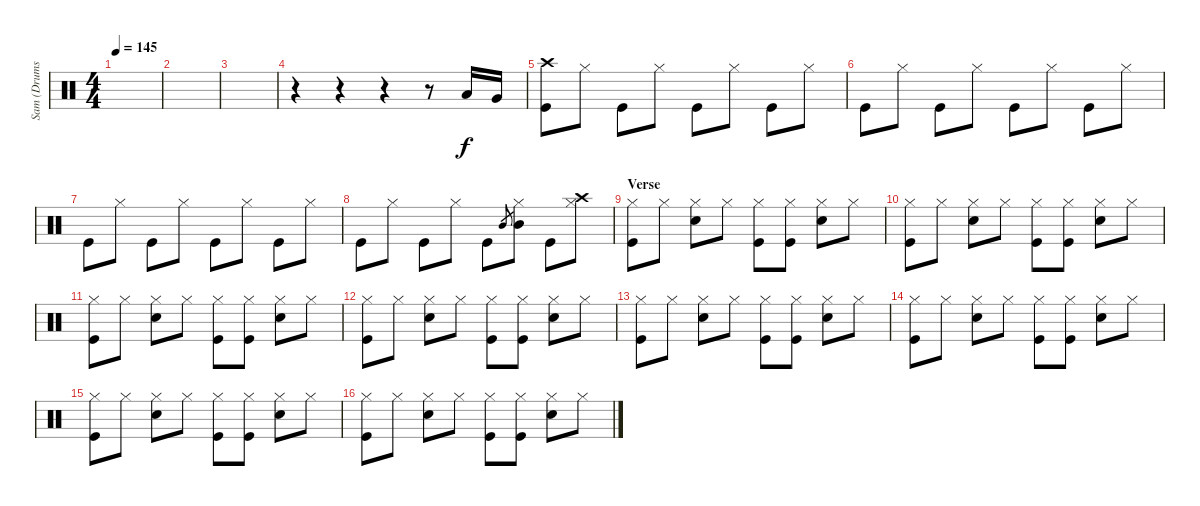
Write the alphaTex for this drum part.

\track ("Sam (Drums)" "Sam (Drums") {instrument percussion}
\staff {score}
\articulation defaults
\ts (4 4)
\tempo 145
\clef neutral
\ks c
|
|
|
r.4 r.4 r.4 r.8 "Low Tom (hit)".16 "Very Low Tom (hit)".16 |
("Crash high (hit)" "Kick (hit)").8 "Hi-Hat (closed)".8 "Kick (hit)".8 "Hi-Hat (closed)".8 "Kick (hit)".8 "Hi-Hat (closed)".8 "Kick (hit)".8 "Hi-Hat (closed)".8 |
"Kick (hit)".8 "Hi-Hat (closed)".8 "Kick (hit)".8 "Hi-Hat (closed)".8 "Kick (hit)".8 "Hi-Hat (closed)".8 "Kick (hit)".8 "Hi-Hat (closed)".8 |
"Kick (hit)".8 "Hi-Hat (closed)".8 "Kick (hit)".8 "Hi-Hat (closed)".8 "Kick (hit)".8 "Hi-Hat (closed)".8 "Kick (hit)".8 "Hi-Hat (closed)".8 |
"Kick (hit)".8 "Hi-Hat (closed)".8 "Kick (hit)".8 "Hi-Hat (closed)".8 "Kick (hit)".8 "Mid Tom (hit)".8{gr} ("Hi-Hat (closed)" "Mid Tom (hit)").8 "Kick (hit)".8 ("Crash high (hit)" "Hi-Hat (closed)").8 |
\section ("" "Verse")
("Hi-Hat (closed)" "Kick (hit)").8 "Hi-Hat (closed)".8 ("Hi-Hat (closed)" "Snare (hit) 2").8 "Hi-Hat (closed)".8 ("Hi-Hat (closed)" "Kick (hit)").8 ("Hi-Hat (closed)" "Kick (hit)").8 ("Hi-Hat (closed)" "Snare (hit) 2").8 "Hi-Hat (closed)".8 |
("Hi-Hat (closed)" "Kick (hit)").8 "Hi-Hat (closed)".8 ("Hi-Hat (closed)" "Snare (hit) 2").8 "Hi-Hat (closed)".8 ("Hi-Hat (closed)" "Kick (hit)").8 ("Hi-Hat (closed)" "Kick (hit)").8 ("Hi-Hat (closed)" "Snare (hit) 2").8 "Hi-Hat (closed)".8 |
("Hi-Hat (closed)" "Kick (hit)").8 "Hi-Hat (closed)".8 ("Hi-Hat (closed)" "Snare (hit) 2").8 "Hi-Hat (closed)".8 ("Hi-Hat (closed)" "Kick (hit)").8 ("Hi-Hat (closed)" "Kick (hit)").8 ("Hi-Hat (closed)" "Snare (hit) 2").8 "Hi-Hat (closed)".8 |
("Hi-Hat (closed)" "Kick (hit)").8 "Hi-Hat (closed)".8 ("Hi-Hat (closed)" "Snare (hit) 2").8 "Hi-Hat (closed)".8 ("Hi-Hat (closed)" "Kick (hit)").8 ("Hi-Hat (closed)" "Kick (hit)").8 ("Hi-Hat (closed)" "Snare (hit) 2").8 "Hi-Hat (closed)".8 |
("Hi-Hat (closed)" "Kick (hit)").8 "Hi-Hat (closed)".8 ("Hi-Hat (closed)" "Snare (hit) 2").8 "Hi-Hat (closed)".8 ("Hi-Hat (closed)" "Kick (hit)").8 ("Hi-Hat (closed)" "Kick (hit)").8 ("Hi-Hat (closed)" "Snare (hit) 2").8 "Hi-Hat (closed)".8 |
("Hi-Hat (closed)" "Kick (hit)").8 "Hi-Hat (closed)".8 ("Hi-Hat (closed)" "Snare (hit) 2").8 "Hi-Hat (closed)".8 ("Hi-Hat (closed)" "Kick (hit)").8 ("Hi-Hat (closed)" "Kick (hit)").8 ("Hi-Hat (closed)" "Snare (hit) 2").8 "Hi-Hat (closed)".8 |
("Hi-Hat (closed)" "Kick (hit)").8 "Hi-Hat (closed)".8 ("Hi-Hat (closed)" "Snare (hit) 2").8 "Hi-Hat (closed)".8 ("Hi-Hat (closed)" "Kick (hit)").8 ("Hi-Hat (closed)" "Kick (hit)").8 ("Hi-Hat (closed)" "Snare (hit) 2").8 "Hi-Hat (closed)".8 |
("Hi-Hat (closed)" "Kick (hit)").8 "Hi-Hat (closed)".8 ("Hi-Hat (closed)" "Snare (hit) 2").8 "Hi-Hat (closed)".8 ("Hi-Hat (closed)" "Kick (hit)").8 ("Hi-Hat (closed)" "Kick (hit)").8 ("Hi-Hat (closed)" "Snare (hit) 2").8 "Hi-Hat (closed)".8
